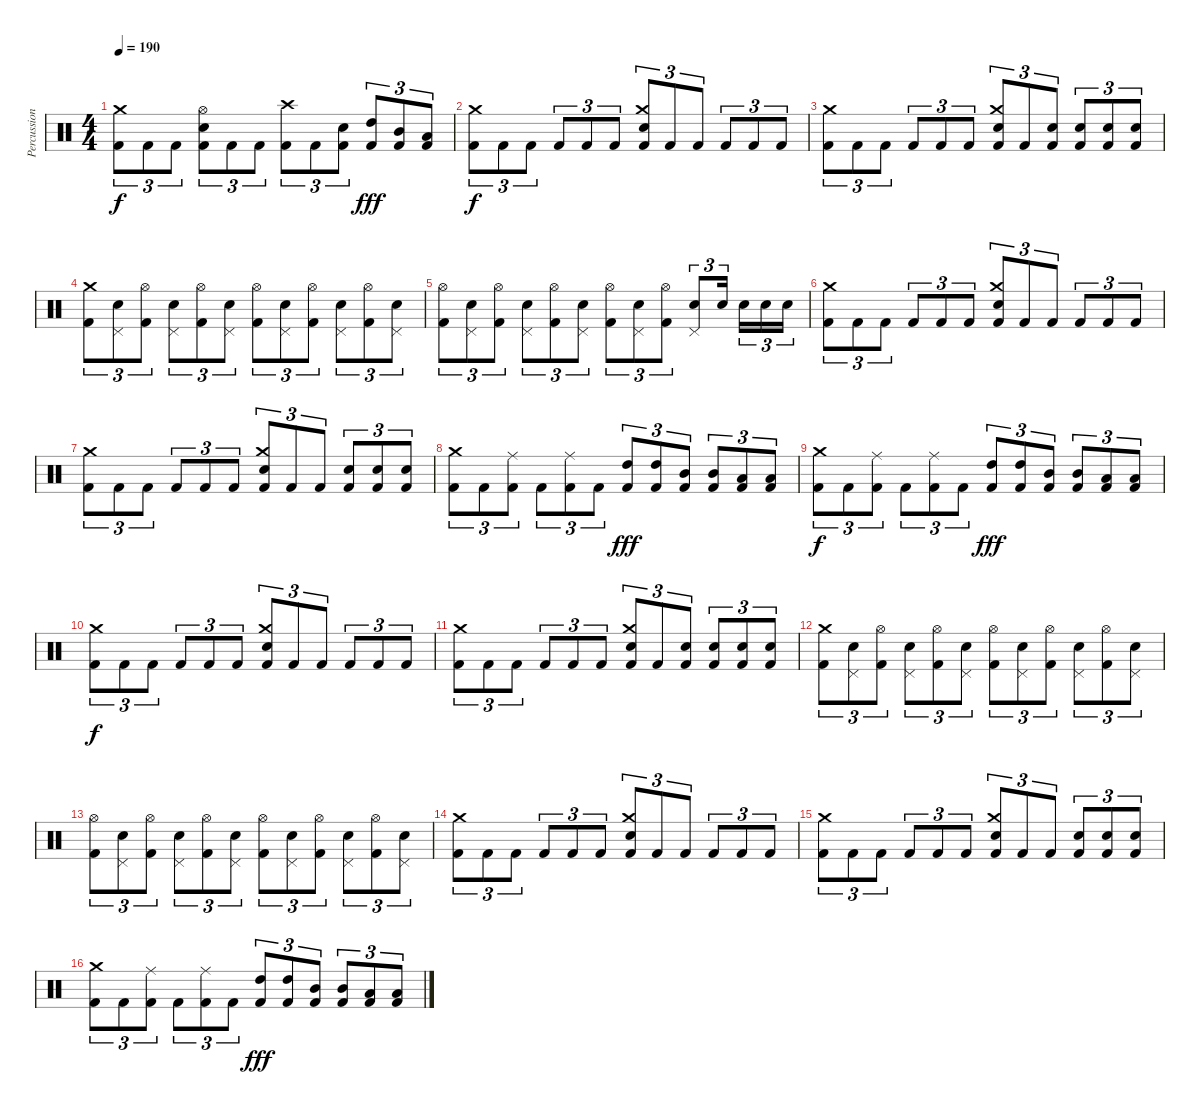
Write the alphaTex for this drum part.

\track ("Percussion" "Percussion") {instrument percussion}
\staff {score}
\articulation defaults
\ts (4 4)
\tempo 190
\clef neutral
\ks c
("Kick (hit) 2" "Crash medium (hit)").8{tu (3 2) dy f} "Kick (hit) 2".8{tu (3 2)} "Kick (hit) 2".8{tu (3 2)} ("Kick (hit) 2" "Electric Snare (hit)" "Hi-Hat (open)").8{tu (3 2)} "Kick (hit) 2".8{tu (3 2)} "Kick (hit) 2".8{tu (3 2)} ("Kick (hit) 2" "Crash high (hit)").8{tu (3 2)} "Kick (hit) 2".8{tu (3 2)} ("Kick (hit) 2" "Electric Snare (hit)").8{tu (3 2)} ("Kick (hit) 2" "High Tom (hit)").8{tu (3 2) dy fff} ("Kick (hit) 2" "Mid Tom (hit)").8{tu (3 2)} ("Kick (hit) 2" "Low Tom (hit)").8{tu (3 2)} |
\section ("" "")
("Kick (hit) 2" "Crash medium (hit)").8{tu (3 2) dy f} "Kick (hit) 2".8{tu (3 2)} "Kick (hit) 2".8{tu (3 2)} "Kick (hit) 2".8{tu (3 2)} "Kick (hit) 2".8{tu (3 2)} "Kick (hit) 2".8{tu (3 2)} ("Kick (hit) 2" "Electric Snare (hit)" "Crash medium (hit)").8{tu (3 2)} "Kick (hit) 2".8{tu (3 2)} "Kick (hit) 2".8{tu (3 2)} "Kick (hit) 2".8{tu (3 2)} "Kick (hit) 2".8{tu (3 2)} "Kick (hit) 2".8{tu (3 2)} |
("Kick (hit) 2" "Crash medium (hit)").8{tu (3 2)} "Kick (hit) 2".8{tu (3 2)} "Kick (hit) 2".8{tu (3 2)} "Kick (hit) 2".8{tu (3 2)} "Kick (hit) 2".8{tu (3 2)} "Kick (hit) 2".8{tu (3 2)} ("Kick (hit) 2" "Electric Snare (hit)" "Crash medium (hit)").8{tu (3 2)} "Kick (hit) 2".8{tu (3 2)} ("Kick (hit) 2" "Electric Snare (hit)").8{tu (3 2)} ("Kick (hit) 2" "Electric Snare (hit)").8{tu (3 2)} ("Kick (hit) 2" "Electric Snare (hit)").8{tu (3 2)} ("Kick (hit) 2" "Electric Snare (hit)").8{tu (3 2)} |
("Kick (hit) 2" "Crash medium (hit)").8{tu (3 2)} ("Electric Snare (hit)" "Pedal Hi-Hat (hit)").8{tu (3 2)} ("Kick (hit) 2" "Hi-Hat (open)").8{tu (3 2)} ("Electric Snare (hit)" "Pedal Hi-Hat (hit)").8{tu (3 2)} ("Kick (hit) 2" "Hi-Hat (open)").8{tu (3 2)} ("Electric Snare (hit)" "Pedal Hi-Hat (hit)").8{tu (3 2)} ("Kick (hit) 2" "Hi-Hat (open)").8{tu (3 2)} ("Electric Snare (hit)" "Pedal Hi-Hat (hit)").8{tu (3 2)} ("Kick (hit) 2" "Hi-Hat (open)").8{tu (3 2)} ("Electric Snare (hit)" "Pedal Hi-Hat (hit)").8{tu (3 2)} ("Kick (hit) 2" "Hi-Hat (open)").8{tu (3 2)} ("Electric Snare (hit)" "Pedal Hi-Hat (hit)").8{tu (3 2)} |
("Kick (hit) 2" "Hi-Hat (open)").8{tu (3 2)} ("Electric Snare (hit)" "Pedal Hi-Hat (hit)").8{tu (3 2)} ("Kick (hit) 2" "Hi-Hat (open)").8{tu (3 2)} ("Electric Snare (hit)" "Pedal Hi-Hat (hit)").8{tu (3 2)} ("Kick (hit) 2" "Hi-Hat (open)").8{tu (3 2)} ("Electric Snare (hit)" "Pedal Hi-Hat (hit)").8{tu (3 2)} ("Kick (hit) 2" "Hi-Hat (open)").8{tu (3 2)} ("Electric Snare (hit)" "Pedal Hi-Hat (hit)").8{tu (3 2)} ("Kick (hit) 2" "Hi-Hat (open)").8{tu (3 2)} ("Electric Snare (hit)" "Pedal Hi-Hat (hit)").8{tu (3 2)} "Electric Snare (hit)".16{tu (3 2)} "Electric Snare (hit)".16{tu (3 2)} "Electric Snare (hit)".16{tu (3 2)} "Electric Snare (hit)".16{tu (3 2)} |
("Kick (hit) 2" "Crash medium (hit)").8{tu (3 2)} "Kick (hit) 2".8{tu (3 2)} "Kick (hit) 2".8{tu (3 2)} "Kick (hit) 2".8{tu (3 2)} "Kick (hit) 2".8{tu (3 2)} "Kick (hit) 2".8{tu (3 2)} ("Kick (hit) 2" "Electric Snare (hit)" "Crash medium (hit)").8{tu (3 2)} "Kick (hit) 2".8{tu (3 2)} "Kick (hit) 2".8{tu (3 2)} "Kick (hit) 2".8{tu (3 2)} "Kick (hit) 2".8{tu (3 2)} "Kick (hit) 2".8{tu (3 2)} |
("Kick (hit) 2" "Crash medium (hit)").8{tu (3 2)} "Kick (hit) 2".8{tu (3 2)} "Kick (hit) 2".8{tu (3 2)} "Kick (hit) 2".8{tu (3 2)} "Kick (hit) 2".8{tu (3 2)} "Kick (hit) 2".8{tu (3 2)} ("Kick (hit) 2" "Electric Snare (hit)" "Crash medium (hit)").8{tu (3 2)} "Kick (hit) 2".8{tu (3 2)} "Kick (hit) 2".8{tu (3 2)} ("Kick (hit) 2" "Electric Snare (hit)").8{tu (3 2)} ("Kick (hit) 2" "Electric Snare (hit)").8{tu (3 2)} ("Kick (hit) 2" "Electric Snare (hit)").8{tu (3 2)} |
("Kick (hit) 2" "Crash medium (hit)").8{tu (3 2)} "Kick (hit) 2".8{tu (3 2)} ("Kick (hit) 2" "Ride (middle)").8{tu (3 2)} "Kick (hit) 2".8{tu (3 2)} ("Kick (hit) 2" "Ride (middle)").8{tu (3 2)} "Kick (hit) 2".8{tu (3 2)} ("Kick (hit) 2" "High Tom (hit)").8{tu (3 2) dy fff} ("Kick (hit) 2" "High Tom (hit)").8{tu (3 2)} ("Kick (hit) 2" "Mid Tom (hit)").8{tu (3 2)} ("Kick (hit) 2" "Mid Tom (hit)").8{tu (3 2)} ("Kick (hit) 2" "Low Tom (hit)").8{tu (3 2)} ("Kick (hit) 2" "Low Tom (hit)").8{tu (3 2)} |
("Kick (hit) 2" "Crash medium (hit)").8{tu (3 2) dy f} "Kick (hit) 2".8{tu (3 2)} ("Kick (hit) 2" "Ride (middle)").8{tu (3 2)} "Kick (hit) 2".8{tu (3 2)} ("Kick (hit) 2" "Ride (middle)").8{tu (3 2)} "Kick (hit) 2".8{tu (3 2)} ("Kick (hit) 2" "High Tom (hit)").8{tu (3 2) dy fff} ("Kick (hit) 2" "High Tom (hit)").8{tu (3 2)} ("Kick (hit) 2" "Mid Tom (hit)").8{tu (3 2)} ("Kick (hit) 2" "Mid Tom (hit)").8{tu (3 2)} ("Kick (hit) 2" "Low Tom (hit)").8{tu (3 2)} ("Kick (hit) 2" "Low Tom (hit)").8{tu (3 2)} |
("Kick (hit) 2" "Crash medium (hit)").8{tu (3 2) dy f} "Kick (hit) 2".8{tu (3 2)} "Kick (hit) 2".8{tu (3 2)} "Kick (hit) 2".8{tu (3 2)} "Kick (hit) 2".8{tu (3 2)} "Kick (hit) 2".8{tu (3 2)} ("Kick (hit) 2" "Electric Snare (hit)" "Crash medium (hit)").8{tu (3 2)} "Kick (hit) 2".8{tu (3 2)} "Kick (hit) 2".8{tu (3 2)} "Kick (hit) 2".8{tu (3 2)} "Kick (hit) 2".8{tu (3 2)} "Kick (hit) 2".8{tu (3 2)} |
("Kick (hit) 2" "Crash medium (hit)").8{tu (3 2)} "Kick (hit) 2".8{tu (3 2)} "Kick (hit) 2".8{tu (3 2)} "Kick (hit) 2".8{tu (3 2)} "Kick (hit) 2".8{tu (3 2)} "Kick (hit) 2".8{tu (3 2)} ("Kick (hit) 2" "Electric Snare (hit)" "Crash medium (hit)").8{tu (3 2)} "Kick (hit) 2".8{tu (3 2)} ("Kick (hit) 2" "Electric Snare (hit)").8{tu (3 2)} ("Kick (hit) 2" "Electric Snare (hit)").8{tu (3 2)} ("Kick (hit) 2" "Electric Snare (hit)").8{tu (3 2)} ("Kick (hit) 2" "Electric Snare (hit)").8{tu (3 2)} |
("Kick (hit) 2" "Crash medium (hit)").8{tu (3 2)} ("Electric Snare (hit)" "Pedal Hi-Hat (hit)").8{tu (3 2)} ("Kick (hit) 2" "Hi-Hat (open)").8{tu (3 2)} ("Electric Snare (hit)" "Pedal Hi-Hat (hit)").8{tu (3 2)} ("Kick (hit) 2" "Hi-Hat (open)").8{tu (3 2)} ("Electric Snare (hit)" "Pedal Hi-Hat (hit)").8{tu (3 2)} ("Kick (hit) 2" "Hi-Hat (open)").8{tu (3 2)} ("Electric Snare (hit)" "Pedal Hi-Hat (hit)").8{tu (3 2)} ("Kick (hit) 2" "Hi-Hat (open)").8{tu (3 2)} ("Electric Snare (hit)" "Pedal Hi-Hat (hit)").8{tu (3 2)} ("Kick (hit) 2" "Hi-Hat (open)").8{tu (3 2)} ("Electric Snare (hit)" "Pedal Hi-Hat (hit)").8{tu (3 2)} |
("Kick (hit) 2" "Hi-Hat (open)").8{tu (3 2)} ("Electric Snare (hit)" "Pedal Hi-Hat (hit)").8{tu (3 2)} ("Kick (hit) 2" "Hi-Hat (open)").8{tu (3 2)} ("Electric Snare (hit)" "Pedal Hi-Hat (hit)").8{tu (3 2)} ("Kick (hit) 2" "Hi-Hat (open)").8{tu (3 2)} ("Electric Snare (hit)" "Pedal Hi-Hat (hit)").8{tu (3 2)} ("Kick (hit) 2" "Hi-Hat (open)").8{tu (3 2)} ("Electric Snare (hit)" "Pedal Hi-Hat (hit)").8{tu (3 2)} ("Kick (hit) 2" "Hi-Hat (open)").8{tu (3 2)} ("Electric Snare (hit)" "Pedal Hi-Hat (hit)").8{tu (3 2)} ("Kick (hit) 2" "Hi-Hat (open)").8{tu (3 2)} ("Electric Snare (hit)" "Pedal Hi-Hat (hit)").8{tu (3 2)} |
("Kick (hit) 2" "Crash medium (hit)").8{tu (3 2)} "Kick (hit) 2".8{tu (3 2)} "Kick (hit) 2".8{tu (3 2)} "Kick (hit) 2".8{tu (3 2)} "Kick (hit) 2".8{tu (3 2)} "Kick (hit) 2".8{tu (3 2)} ("Kick (hit) 2" "Electric Snare (hit)" "Crash medium (hit)").8{tu (3 2)} "Kick (hit) 2".8{tu (3 2)} "Kick (hit) 2".8{tu (3 2)} "Kick (hit) 2".8{tu (3 2)} "Kick (hit) 2".8{tu (3 2)} "Kick (hit) 2".8{tu (3 2)} |
("Kick (hit) 2" "Crash medium (hit)").8{tu (3 2)} "Kick (hit) 2".8{tu (3 2)} "Kick (hit) 2".8{tu (3 2)} "Kick (hit) 2".8{tu (3 2)} "Kick (hit) 2".8{tu (3 2)} "Kick (hit) 2".8{tu (3 2)} ("Kick (hit) 2" "Electric Snare (hit)" "Crash medium (hit)").8{tu (3 2)} "Kick (hit) 2".8{tu (3 2)} "Kick (hit) 2".8{tu (3 2)} ("Kick (hit) 2" "Electric Snare (hit)").8{tu (3 2)} ("Kick (hit) 2" "Electric Snare (hit)").8{tu (3 2)} ("Kick (hit) 2" "Electric Snare (hit)").8{tu (3 2)} |
("Kick (hit) 2" "Crash medium (hit)").8{tu (3 2)} "Kick (hit) 2".8{tu (3 2)} ("Kick (hit) 2" "Ride (middle)").8{tu (3 2)} "Kick (hit) 2".8{tu (3 2)} ("Kick (hit) 2" "Ride (middle)").8{tu (3 2)} "Kick (hit) 2".8{tu (3 2)} ("Kick (hit) 2" "High Tom (hit)").8{tu (3 2) dy fff} ("Kick (hit) 2" "High Tom (hit)").8{tu (3 2)} ("Kick (hit) 2" "Mid Tom (hit)").8{tu (3 2)} ("Kick (hit) 2" "Mid Tom (hit)").8{tu (3 2)} ("Kick (hit) 2" "Low Tom (hit)").8{tu (3 2)} ("Kick (hit) 2" "Low Tom (hit)").8{tu (3 2)}
